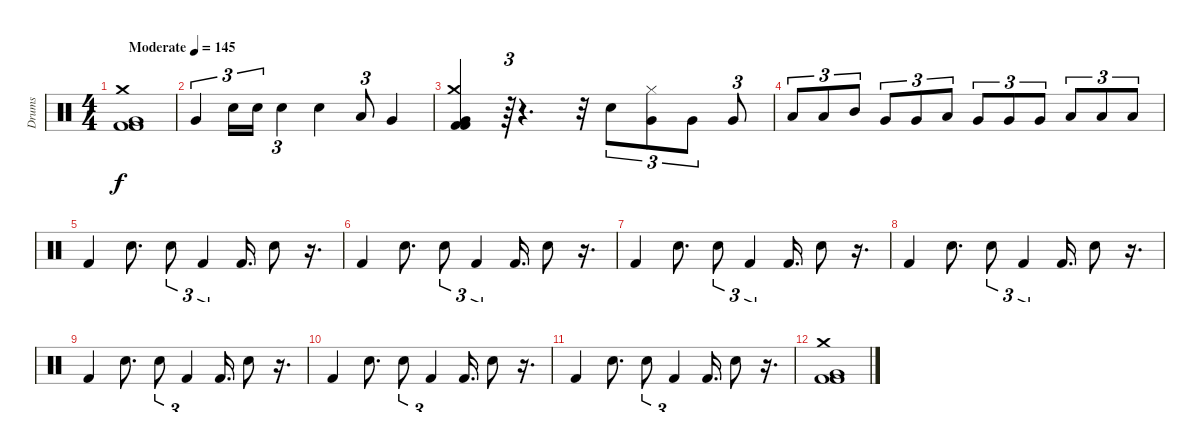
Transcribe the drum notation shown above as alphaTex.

\track ("Drums" "Drums") {instrument percussion}
\staff {score}
\articulation defaults
\ts (4 4)
\tempo (145 "Moderate")
\clef neutral
\ks c
("Kick (hit) 2" "Crash medium (hit)" "Very Low Tom (hit)" "Kick (hit) 2").1{dy f} |
"Very Low Tom (hit)".4{tu (3 2)} "Snare (hit) 2".16{tu (3 2)} "Snare (hit) 2".16{tu (3 2)} "Snare (hit) 2".4{tu (3 2)} "Snare (hit) 2".4 "Low Tom (hit)".8{tu (3 2)} "Very Low Tom (hit)".4 |
("Kick (hit) 2" "Crash medium (hit)" "Very Low Tom (hit)" "Kick (hit) 2").4 r.64{tu (3 2)} r.4{d} r.32 "Snare (hit) 2".8{tu (3 2)} ("Hi-Hat (closed)" "Very Low Tom (hit)").8{tu (3 2)} "Very Low Tom (hit)".8{tu (3 2)} "Very Low Tom (hit)".8{tu (3 2)} |
"Low Tom (hit)".8{tu (3 2)} "Low Tom (hit)".8{tu (3 2)} "Mid Tom (hit)".8{tu (3 2)} "Very Low Tom (hit)".8{tu (3 2)} "Very Low Tom (hit)".8{tu (3 2)} "Low Tom (hit)".8{tu (3 2)} "Very Low Tom (hit)".8{tu (3 2)} "Very Low Tom (hit)".8{tu (3 2)} "Very Low Tom (hit)".8{tu (3 2)} "Low Floor Tom (hit)".8{tu (3 2)} "Low Floor Tom (hit)".8{tu (3 2)} "Low Floor Tom (hit)".8{tu (3 2)} |
"Kick (hit) 2".4 "Snare (hit) 2".8{d} "Snare (hit) 2".8{tu (3 2)} "Kick (hit) 2".4{tu (3 2)} "Kick (hit) 2".16{d} "Snare (hit) 2".8 r.16{d} |
"Kick (hit) 2".4 "Snare (hit) 2".8{d} "Snare (hit) 2".8{tu (3 2)} "Kick (hit) 2".4{tu (3 2)} "Kick (hit) 2".16{d} "Snare (hit) 2".8 r.16{d} |
"Kick (hit) 2".4 "Snare (hit) 2".8{d} "Snare (hit) 2".8{tu (3 2)} "Kick (hit) 2".4{tu (3 2)} "Kick (hit) 2".16{d} "Snare (hit) 2".8 r.16{d} |
"Kick (hit) 2".4 "Snare (hit) 2".8{d} "Snare (hit) 2".8{tu (3 2)} "Kick (hit) 2".4{tu (3 2)} "Kick (hit) 2".16{d} "Snare (hit) 2".8 r.16{d} |
"Kick (hit) 2".4 "Snare (hit) 2".8{d} "Snare (hit) 2".8{tu (3 2)} "Kick (hit) 2".4{tu (3 2)} "Kick (hit) 2".16{d} "Snare (hit) 2".8 r.16{d} |
"Kick (hit) 2".4 "Snare (hit) 2".8{d} "Snare (hit) 2".8{tu (3 2)} "Kick (hit) 2".4{tu (3 2)} "Kick (hit) 2".16{d} "Snare (hit) 2".8 r.16{d} |
"Kick (hit) 2".4 "Snare (hit) 2".8{d} "Snare (hit) 2".8{tu (3 2)} "Kick (hit) 2".4{tu (3 2)} "Kick (hit) 2".16{d} "Snare (hit) 2".8 r.16{d} |
("Kick (hit) 2" "Crash medium (hit)" "Very Low Tom (hit)" "Kick (hit) 2").1
